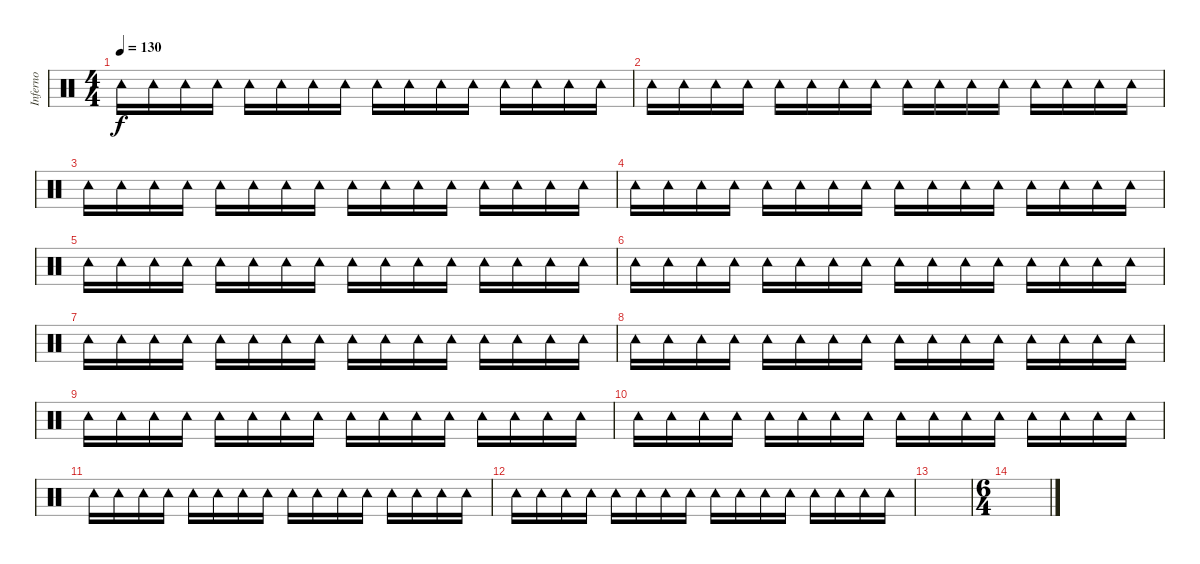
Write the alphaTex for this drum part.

\track ("Inferno" "Inferno") {instrument percussion}
\staff {score}
\articulation defaults
\ts (4 4)
\tempo 130
\clef neutral
\ks c "Tambourine (hit)".16{dy f volume 11} "Tambourine (hit)".16 "Tambourine (hit)".16 "Tambourine (hit)".16 "Tambourine (hit)".16 "Tambourine (hit)".16 "Tambourine (hit)".16 "Tambourine (hit)".16 "Tambourine (hit)".16 "Tambourine (hit)".16 "Tambourine (hit)".16 "Tambourine (hit)".16 "Tambourine (hit)".16 "Tambourine (hit)".16 "Tambourine (hit)".16 "Tambourine (hit)".16
|
"Tambourine (hit)".16 "Tambourine (hit)".16 "Tambourine (hit)".16 "Tambourine (hit)".16 "Tambourine (hit)".16 "Tambourine (hit)".16 "Tambourine (hit)".16 "Tambourine (hit)".16 "Tambourine (hit)".16 "Tambourine (hit)".16 "Tambourine (hit)".16 "Tambourine (hit)".16 "Tambourine (hit)".16 "Tambourine (hit)".16 "Tambourine (hit)".16 "Tambourine (hit)".16 |
"Tambourine (hit)".16 "Tambourine (hit)".16 "Tambourine (hit)".16 "Tambourine (hit)".16 "Tambourine (hit)".16 "Tambourine (hit)".16 "Tambourine (hit)".16 "Tambourine (hit)".16 "Tambourine (hit)".16 "Tambourine (hit)".16 "Tambourine (hit)".16 "Tambourine (hit)".16 "Tambourine (hit)".16 "Tambourine (hit)".16 "Tambourine (hit)".16 "Tambourine (hit)".16 |
"Tambourine (hit)".16 "Tambourine (hit)".16 "Tambourine (hit)".16 "Tambourine (hit)".16 "Tambourine (hit)".16 "Tambourine (hit)".16 "Tambourine (hit)".16 "Tambourine (hit)".16 "Tambourine (hit)".16 "Tambourine (hit)".16 "Tambourine (hit)".16 "Tambourine (hit)".16 "Tambourine (hit)".16 "Tambourine (hit)".16 "Tambourine (hit)".16 "Tambourine (hit)".16 |
"Tambourine (hit)".16 "Tambourine (hit)".16 "Tambourine (hit)".16 "Tambourine (hit)".16 "Tambourine (hit)".16 "Tambourine (hit)".16 "Tambourine (hit)".16 "Tambourine (hit)".16 "Tambourine (hit)".16 "Tambourine (hit)".16 "Tambourine (hit)".16 "Tambourine (hit)".16 "Tambourine (hit)".16 "Tambourine (hit)".16 "Tambourine (hit)".16 "Tambourine (hit)".16 |
"Tambourine (hit)".16 "Tambourine (hit)".16 "Tambourine (hit)".16 "Tambourine (hit)".16 "Tambourine (hit)".16 "Tambourine (hit)".16 "Tambourine (hit)".16 "Tambourine (hit)".16 "Tambourine (hit)".16 "Tambourine (hit)".16 "Tambourine (hit)".16 "Tambourine (hit)".16 "Tambourine (hit)".16 "Tambourine (hit)".16 "Tambourine (hit)".16 "Tambourine (hit)".16 |
"Tambourine (hit)".16 "Tambourine (hit)".16 "Tambourine (hit)".16 "Tambourine (hit)".16 "Tambourine (hit)".16 "Tambourine (hit)".16 "Tambourine (hit)".16 "Tambourine (hit)".16 "Tambourine (hit)".16 "Tambourine (hit)".16 "Tambourine (hit)".16 "Tambourine (hit)".16 "Tambourine (hit)".16 "Tambourine (hit)".16 "Tambourine (hit)".16 "Tambourine (hit)".16 |
"Tambourine (hit)".16 "Tambourine (hit)".16 "Tambourine (hit)".16 "Tambourine (hit)".16 "Tambourine (hit)".16 "Tambourine (hit)".16 "Tambourine (hit)".16 "Tambourine (hit)".16 "Tambourine (hit)".16 "Tambourine (hit)".16 "Tambourine (hit)".16 "Tambourine (hit)".16 "Tambourine (hit)".16 "Tambourine (hit)".16 "Tambourine (hit)".16 "Tambourine (hit)".16 |
"Tambourine (hit)".16 "Tambourine (hit)".16 "Tambourine (hit)".16 "Tambourine (hit)".16 "Tambourine (hit)".16 "Tambourine (hit)".16 "Tambourine (hit)".16 "Tambourine (hit)".16 "Tambourine (hit)".16 "Tambourine (hit)".16 "Tambourine (hit)".16 "Tambourine (hit)".16 "Tambourine (hit)".16 "Tambourine (hit)".16 "Tambourine (hit)".16 "Tambourine (hit)".16 |
"Tambourine (hit)".16 "Tambourine (hit)".16 "Tambourine (hit)".16 "Tambourine (hit)".16 "Tambourine (hit)".16 "Tambourine (hit)".16 "Tambourine (hit)".16 "Tambourine (hit)".16 "Tambourine (hit)".16 "Tambourine (hit)".16 "Tambourine (hit)".16 "Tambourine (hit)".16 "Tambourine (hit)".16 "Tambourine (hit)".16 "Tambourine (hit)".16 "Tambourine (hit)".16 |
"Tambourine (hit)".16 "Tambourine (hit)".16 "Tambourine (hit)".16 "Tambourine (hit)".16 "Tambourine (hit)".16 "Tambourine (hit)".16 "Tambourine (hit)".16 "Tambourine (hit)".16 "Tambourine (hit)".16 "Tambourine (hit)".16 "Tambourine (hit)".16 "Tambourine (hit)".16 "Tambourine (hit)".16 "Tambourine (hit)".16 "Tambourine (hit)".16 "Tambourine (hit)".16 |
"Tambourine (hit)".16 "Tambourine (hit)".16 "Tambourine (hit)".16 "Tambourine (hit)".16 "Tambourine (hit)".16 "Tambourine (hit)".16 "Tambourine (hit)".16 "Tambourine (hit)".16 "Tambourine (hit)".16 "Tambourine (hit)".16 "Tambourine (hit)".16 "Tambourine (hit)".16 "Tambourine (hit)".16 "Tambourine (hit)".16 "Tambourine (hit)".16 "Tambourine (hit)".16 |
|
\ts (6 4)
